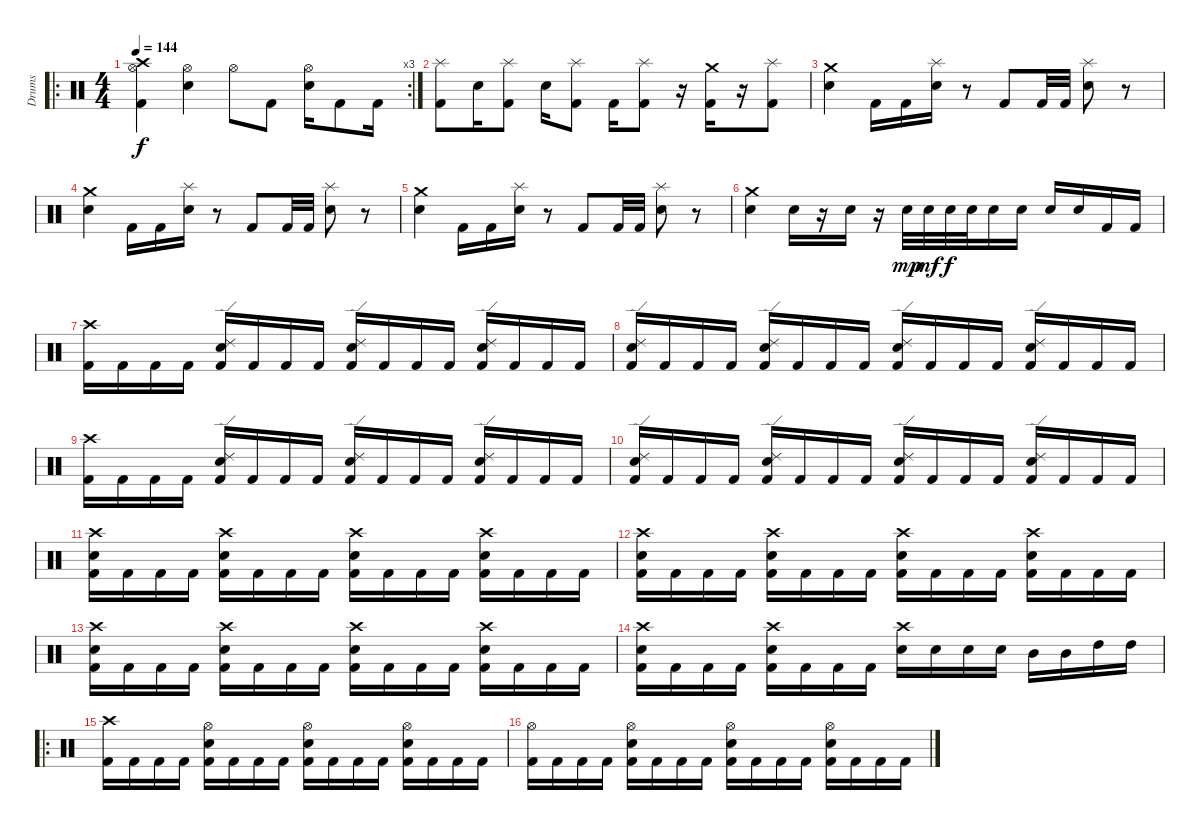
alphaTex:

\track ("Drums" "Drums") {instrument percussion}
\staff {score}
\articulation defaults
\ro
\rc 3
\ts (4 4)
\tempo 144
\clef neutral
\ks c
("Crash high (hit)" "Hi-Hat (open)" "Kick (hit) 2").4{dy f} ("Hi-Hat (open)" "Snare (hit) 2").4 "Hi-Hat (open)".8 "Kick (hit) 2".8 ("Hi-Hat (open)" "Snare (hit) 2").16 "Kick (hit) 2".8 "Kick (hit) 2".16 |
("Splash (hit)" "Kick (hit) 2").8 "Snare (hit) 2".16 ("Splash (hit)" "Kick (hit) 2").8 "Snare (hit) 2".16 ("Splash (hit)" "Kick (hit) 2").8 "Kick (hit) 2".16 ("Splash (hit)" "Kick (hit) 2").8 r.16 ("Crash medium (hit)" "Kick (hit) 2").16 r.16 ("Splash (hit)" "Kick (hit) 2").8 |
("Crash medium (hit)" "Snare (hit) 2").4 "Kick (hit) 2".16 "Kick (hit) 2".16 ("Splash (hit)" "Snare (hit) 2").16 r.8 "Kick (hit) 2".8 "Kick (hit) 2".32 "Kick (hit) 2".32 ("Splash (hit)" "Snare (hit) 2").8 r.8 |
("Crash medium (hit)" "Snare (hit) 2").4 "Kick (hit) 2".16 "Kick (hit) 2".16 ("Splash (hit)" "Snare (hit) 2").16 r.8 "Kick (hit) 2".8 "Kick (hit) 2".32 "Kick (hit) 2".32 ("Splash (hit)" "Snare (hit) 2").8 r.8 |
("Crash medium (hit)" "Snare (hit) 2").4 "Kick (hit) 2".16 "Kick (hit) 2".16 ("Splash (hit)" "Snare (hit) 2").16 r.8 "Kick (hit) 2".8 "Kick (hit) 2".32 "Kick (hit) 2".32 ("Splash (hit)" "Snare (hit) 2").8 r.8 |
("Crash medium (hit)" "Snare (hit) 2").4 "Snare (hit) 2".16 r.16 "Snare (hit) 2".16 r.16 "Snare (hit) 2".32{dy mp} "Snare (hit) 2".32{dy mf} "Snare (hit) 2".32{dy f} "Snare (hit) 2".32 "Snare (hit) 2".16 "Snare (hit) 2".16 "Snare (hit) 2".16 "Snare (hit) 2".16 "Kick (hit) 2".16 "Kick (hit) 2".16 |
("Crash high (hit)" "Kick (hit) 2").16 "Kick (hit) 2".16 "Kick (hit) 2".16 "Kick (hit) 2".16 ("Ride (edge) 2" "Snare (hit) 2" "Kick (hit) 2").16 "Kick (hit) 2".16 "Kick (hit) 2".16 "Kick (hit) 2".16 ("Ride (edge) 2" "Snare (hit) 2" "Kick (hit) 2").16 "Kick (hit) 2".16 "Kick (hit) 2".16 "Kick (hit) 2".16 ("Ride (edge) 2" "Snare (hit) 2" "Kick (hit) 2").16 "Kick (hit) 2".16 "Kick (hit) 2".16 "Kick (hit) 2".16 |
("Ride (edge) 2" "Snare (hit) 2" "Kick (hit) 2").16 "Kick (hit) 2".16 "Kick (hit) 2".16 "Kick (hit) 2".16 ("Ride (edge) 2" "Snare (hit) 2" "Kick (hit) 2").16 "Kick (hit) 2".16 "Kick (hit) 2".16 "Kick (hit) 2".16 ("Ride (edge) 2" "Snare (hit) 2" "Kick (hit) 2").16 "Kick (hit) 2".16 "Kick (hit) 2".16 "Kick (hit) 2".16 ("Ride (edge) 2" "Snare (hit) 2" "Kick (hit) 2").16 "Kick (hit) 2".16 "Kick (hit) 2".16 "Kick (hit) 2".16 |
("Crash high (hit)" "Kick (hit) 2").16 "Kick (hit) 2".16 "Kick (hit) 2".16 "Kick (hit) 2".16 ("Ride (edge) 2" "Snare (hit) 2" "Kick (hit) 2").16 "Kick (hit) 2".16 "Kick (hit) 2".16 "Kick (hit) 2".16 ("Ride (edge) 2" "Snare (hit) 2" "Kick (hit) 2").16 "Kick (hit) 2".16 "Kick (hit) 2".16 "Kick (hit) 2".16 ("Ride (edge) 2" "Snare (hit) 2" "Kick (hit) 2").16 "Kick (hit) 2".16 "Kick (hit) 2".16 "Kick (hit) 2".16 |
("Ride (edge) 2" "Snare (hit) 2" "Kick (hit) 2").16 "Kick (hit) 2".16 "Kick (hit) 2".16 "Kick (hit) 2".16 ("Ride (edge) 2" "Snare (hit) 2" "Kick (hit) 2").16 "Kick (hit) 2".16 "Kick (hit) 2".16 "Kick (hit) 2".16 ("Ride (edge) 2" "Snare (hit) 2" "Kick (hit) 2").16 "Kick (hit) 2".16 "Kick (hit) 2".16 "Kick (hit) 2".16 ("Ride (edge) 2" "Snare (hit) 2" "Kick (hit) 2").16 "Kick (hit) 2".16 "Kick (hit) 2".16 "Kick (hit) 2".16 |
("Crash high (hit)" "Snare (hit) 2" "Kick (hit) 2").16 "Kick (hit) 2".16 "Kick (hit) 2".16 "Kick (hit) 2".16 ("Crash high (hit)" "Snare (hit) 2" "Kick (hit) 2").16 "Kick (hit) 2".16 "Kick (hit) 2".16 "Kick (hit) 2".16 ("Crash high (hit)" "Snare (hit) 2" "Kick (hit) 2").16 "Kick (hit) 2".16 "Kick (hit) 2".16 "Kick (hit) 2".16 ("Crash high (hit)" "Snare (hit) 2" "Kick (hit) 2").16 "Kick (hit) 2".16 "Kick (hit) 2".16 "Kick (hit) 2".16 |
("Crash high (hit)" "Snare (hit) 2" "Kick (hit) 2").16 "Kick (hit) 2".16 "Kick (hit) 2".16 "Kick (hit) 2".16 ("Crash high (hit)" "Snare (hit) 2" "Kick (hit) 2").16 "Kick (hit) 2".16 "Kick (hit) 2".16 "Kick (hit) 2".16 ("Crash high (hit)" "Snare (hit) 2" "Kick (hit) 2").16 "Kick (hit) 2".16 "Kick (hit) 2".16 "Kick (hit) 2".16 ("Crash high (hit)" "Snare (hit) 2" "Kick (hit) 2").16 "Kick (hit) 2".16 "Kick (hit) 2".16 "Kick (hit) 2".16 |
("Crash high (hit)" "Snare (hit) 2" "Kick (hit) 2").16 "Kick (hit) 2".16 "Kick (hit) 2".16 "Kick (hit) 2".16 ("Crash high (hit)" "Snare (hit) 2" "Kick (hit) 2").16 "Kick (hit) 2".16 "Kick (hit) 2".16 "Kick (hit) 2".16 ("Crash high (hit)" "Snare (hit) 2" "Kick (hit) 2").16 "Kick (hit) 2".16 "Kick (hit) 2".16 "Kick (hit) 2".16 ("Crash high (hit)" "Snare (hit) 2" "Kick (hit) 2").16 "Kick (hit) 2".16 "Kick (hit) 2".16 "Kick (hit) 2".16 |
("Crash high (hit)" "Snare (hit) 2" "Kick (hit) 2").16 "Kick (hit) 2".16 "Kick (hit) 2".16 "Kick (hit) 2".16 ("Crash high (hit)" "Snare (hit) 2" "Kick (hit) 2").16 "Kick (hit) 2".16 "Kick (hit) 2".16 "Kick (hit) 2".16 ("Crash high (hit)" "Snare (hit) 2").16 "Snare (hit) 2".16 "Snare (hit) 2".16 "Snare (hit) 2".16 "Mid Tom (hit)".16 "Mid Tom (hit)".16 "High Tom (hit)".16 "High Tom (hit)".16 |
\ro
("Crash high (hit)" "Kick (hit) 2").16 "Kick (hit) 2".16 "Kick (hit) 2".16 "Kick (hit) 2".16 ("Hi-Hat (open)" "Snare (hit) 2" "Kick (hit) 2").16 "Kick (hit) 2".16 "Kick (hit) 2".16 "Kick (hit) 2".16 ("Hi-Hat (open)" "Snare (hit) 2" "Kick (hit) 2").16 "Kick (hit) 2".16 "Kick (hit) 2".16 "Kick (hit) 2".16 ("Hi-Hat (open)" "Snare (hit) 2" "Kick (hit) 2").16 "Kick (hit) 2".16 "Kick (hit) 2".16 "Kick (hit) 2".16 |
("Hi-Hat (open)" "Kick (hit) 2").16 "Kick (hit) 2".16 "Kick (hit) 2".16 "Kick (hit) 2".16 ("Hi-Hat (open)" "Snare (hit) 2" "Kick (hit) 2").16 "Kick (hit) 2".16 "Kick (hit) 2".16 "Kick (hit) 2".16 ("Hi-Hat (open)" "Snare (hit) 2" "Kick (hit) 2").16 "Kick (hit) 2".16 "Kick (hit) 2".16 "Kick (hit) 2".16 ("Hi-Hat (open)" "Snare (hit) 2" "Kick (hit) 2").16 "Kick (hit) 2".16 "Kick (hit) 2".16 "Kick (hit) 2".16
